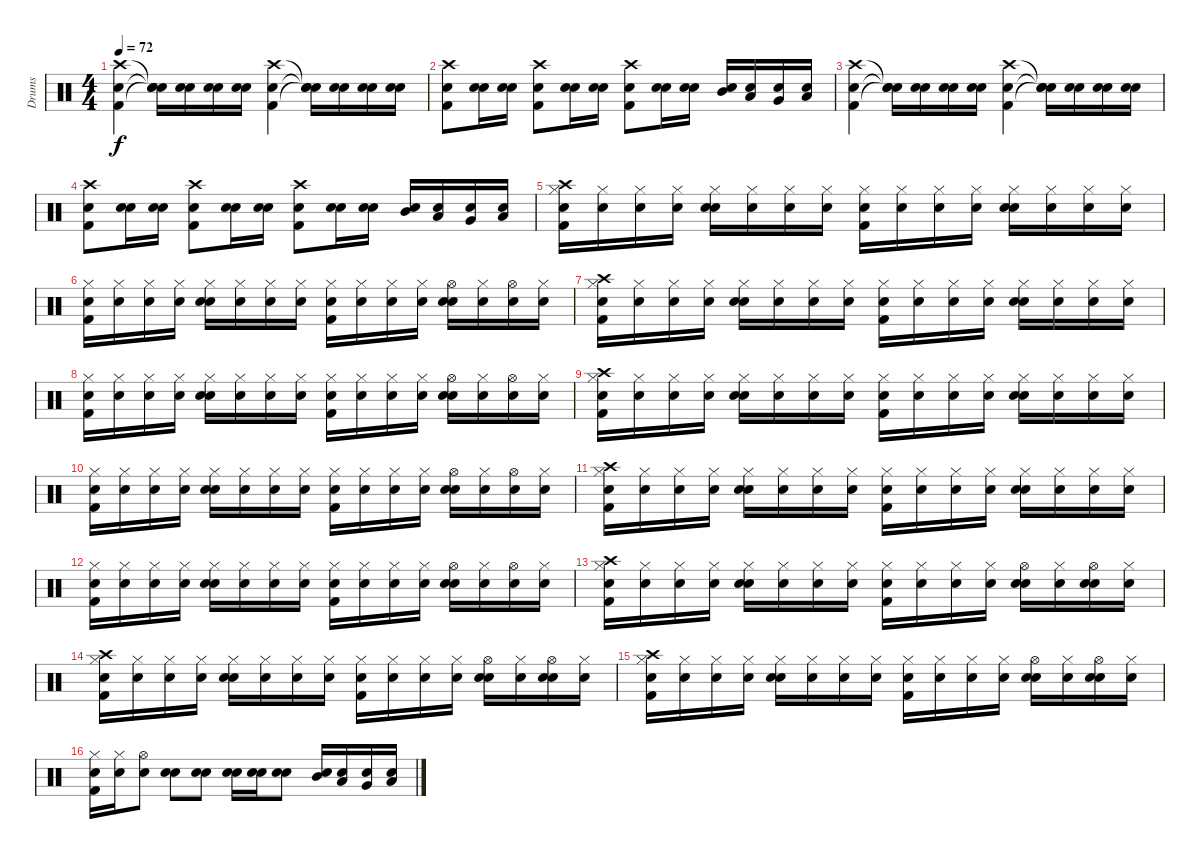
\track ("Drums" "Drums") {instrument percussion}
\staff {score}
\articulation defaults
\ts (4 4)
\tempo 72
\clef neutral
\ks c
("Snare (hit)" "Kick (hit) 2" "Crash high (hit)").4{dy f} ("Snare (hit)"{t} "Snare (hit)"{t} "Snare (hit)"{t}).16 ("Snare (hit)" "Snare (hit) 2").16 ("Snare (hit)" "Snare (hit) 2").16 ("Snare (hit)" "Snare (hit) 2").16 ("Snare (hit)" "Kick (hit) 2" "Crash high (hit)").4 ("Snare (hit)"{t} "Snare (hit)"{t} "Snare (hit)"{t}).16 ("Snare (hit)" "Snare (hit) 2").16 ("Snare (hit)" "Snare (hit) 2").16 ("Snare (hit)" "Snare (hit) 2").16 |
("Snare (hit)" "Kick (hit) 2" "Crash high (hit)").8 ("Snare (hit)" "Snare (hit) 2").16 ("Snare (hit)" "Snare (hit) 2").16 ("Snare (hit)" "Kick (hit) 2" "Crash high (hit)").8 ("Snare (hit)" "Snare (hit) 2").16 ("Snare (hit)" "Snare (hit) 2").16 ("Snare (hit)" "Kick (hit) 2" "Crash high (hit)").8 ("Snare (hit)" "Snare (hit) 2").16 ("Snare (hit)" "Snare (hit) 2").16 ("Snare (hit)" "Mid Tom (hit)").16 ("Snare (hit)" "Low Tom (hit)").16 ("Snare (hit)" "Very Low Tom (hit)").16 ("Snare (hit)" "Low Floor Tom (hit)").16 |
("Snare (hit)" "Kick (hit) 2" "Crash high (hit)").4 ("Snare (hit)"{t} "Snare (hit)"{t} "Snare (hit)"{t}).16 ("Snare (hit)" "Snare (hit) 2").16 ("Snare (hit)" "Snare (hit) 2").16 ("Snare (hit)" "Snare (hit) 2").16 ("Snare (hit)" "Kick (hit) 2" "Crash high (hit)").4 ("Snare (hit)"{t} "Snare (hit)"{t} "Snare (hit)"{t}).16 ("Snare (hit)" "Snare (hit) 2").16 ("Snare (hit)" "Snare (hit) 2").16 ("Snare (hit)" "Snare (hit) 2").16 |
("Snare (hit)" "Kick (hit) 2" "Crash high (hit)").8 ("Snare (hit)" "Snare (hit) 2").16 ("Snare (hit)" "Snare (hit) 2").16 ("Snare (hit)" "Kick (hit) 2" "Crash high (hit)").8 ("Snare (hit)" "Snare (hit) 2").16 ("Snare (hit)" "Snare (hit) 2").16 ("Snare (hit)" "Kick (hit) 2" "Crash high (hit)").8 ("Snare (hit)" "Snare (hit) 2").16 ("Snare (hit)" "Snare (hit) 2").16 ("Snare (hit)" "Mid Tom (hit)").16 ("Snare (hit)" "Low Tom (hit)").16 ("Snare (hit)" "Very Low Tom (hit)").16 ("Snare (hit)" "Low Floor Tom (hit)").16 |
("Snare (hit)" "Kick (hit) 2" "Hi-Hat (closed)" "Crash high (hit)").16 ("Snare (hit)" "Hi-Hat (closed)").16 ("Snare (hit)" "Hi-Hat (closed)").16 ("Snare (hit)" "Hi-Hat (closed)").16 ("Snare (hit)" "Snare (hit) 2" "Hi-Hat (closed)").16 ("Snare (hit)" "Hi-Hat (closed)").16 ("Snare (hit)" "Hi-Hat (closed)").16 ("Snare (hit)" "Hi-Hat (closed)").16 ("Snare (hit)" "Kick (hit) 2" "Hi-Hat (closed)").16 ("Snare (hit)" "Hi-Hat (closed)").16 ("Snare (hit)" "Hi-Hat (closed)").16 ("Snare (hit)" "Hi-Hat (closed)").16 ("Snare (hit)" "Snare (hit) 2" "Hi-Hat (closed)").16 ("Snare (hit)" "Hi-Hat (closed)").16 ("Snare (hit)" "Hi-Hat (closed)").16 ("Snare (hit)" "Hi-Hat (closed)").16 |
("Snare (hit)" "Kick (hit) 2" "Hi-Hat (closed)").16 ("Snare (hit)" "Hi-Hat (closed)").16 ("Snare (hit)" "Hi-Hat (closed)").16 ("Snare (hit)" "Hi-Hat (closed)").16 ("Snare (hit)" "Snare (hit) 2" "Hi-Hat (closed)").16 ("Snare (hit)" "Hi-Hat (closed)").16 ("Snare (hit)" "Hi-Hat (closed)").16 ("Snare (hit)" "Hi-Hat (closed)").16 ("Snare (hit)" "Kick (hit) 2" "Hi-Hat (closed)").16 ("Snare (hit)" "Hi-Hat (closed)").16 ("Snare (hit)" "Hi-Hat (closed)").16 ("Snare (hit)" "Hi-Hat (closed)").16 ("Snare (hit)" "Snare (hit) 2" "Hi-Hat (open)").16 ("Snare (hit)" "Hi-Hat (closed)").16 ("Snare (hit)" "Hi-Hat (open)").16 ("Snare (hit)" "Hi-Hat (closed)").16 |
("Snare (hit)" "Kick (hit) 2" "Hi-Hat (closed)" "Crash high (hit)").16 ("Snare (hit)" "Hi-Hat (closed)").16 ("Snare (hit)" "Hi-Hat (closed)").16 ("Snare (hit)" "Hi-Hat (closed)").16 ("Snare (hit)" "Snare (hit) 2" "Hi-Hat (closed)").16 ("Snare (hit)" "Hi-Hat (closed)").16 ("Snare (hit)" "Hi-Hat (closed)").16 ("Snare (hit)" "Hi-Hat (closed)").16 ("Snare (hit)" "Kick (hit) 2" "Hi-Hat (closed)").16 ("Snare (hit)" "Hi-Hat (closed)").16 ("Snare (hit)" "Hi-Hat (closed)").16 ("Snare (hit)" "Hi-Hat (closed)").16 ("Snare (hit)" "Snare (hit) 2" "Hi-Hat (closed)").16 ("Snare (hit)" "Hi-Hat (closed)").16 ("Snare (hit)" "Hi-Hat (closed)").16 ("Snare (hit)" "Hi-Hat (closed)").16 |
("Snare (hit)" "Kick (hit) 2" "Hi-Hat (closed)").16 ("Snare (hit)" "Hi-Hat (closed)").16 ("Snare (hit)" "Hi-Hat (closed)").16 ("Snare (hit)" "Hi-Hat (closed)").16 ("Snare (hit)" "Snare (hit) 2" "Hi-Hat (closed)").16 ("Snare (hit)" "Hi-Hat (closed)").16 ("Snare (hit)" "Hi-Hat (closed)").16 ("Snare (hit)" "Hi-Hat (closed)").16 ("Snare (hit)" "Kick (hit) 2" "Hi-Hat (closed)").16 ("Snare (hit)" "Hi-Hat (closed)").16 ("Snare (hit)" "Hi-Hat (closed)").16 ("Snare (hit)" "Hi-Hat (closed)").16 ("Snare (hit)" "Snare (hit) 2" "Hi-Hat (open)").16 ("Snare (hit)" "Hi-Hat (closed)").16 ("Snare (hit)" "Hi-Hat (open)").16 ("Snare (hit)" "Hi-Hat (closed)").16 |
("Snare (hit)" "Kick (hit) 2" "Hi-Hat (closed)" "Crash high (hit)").16 ("Snare (hit)" "Hi-Hat (closed)").16 ("Snare (hit)" "Hi-Hat (closed)").16 ("Snare (hit)" "Hi-Hat (closed)").16 ("Snare (hit)" "Snare (hit) 2" "Hi-Hat (closed)").16 ("Snare (hit)" "Hi-Hat (closed)").16 ("Snare (hit)" "Hi-Hat (closed)").16 ("Snare (hit)" "Hi-Hat (closed)").16 ("Snare (hit)" "Kick (hit) 2" "Hi-Hat (closed)").16 ("Snare (hit)" "Hi-Hat (closed)").16 ("Snare (hit)" "Hi-Hat (closed)").16 ("Snare (hit)" "Hi-Hat (closed)").16 ("Snare (hit)" "Snare (hit) 2" "Hi-Hat (closed)").16 ("Snare (hit)" "Hi-Hat (closed)").16 ("Snare (hit)" "Hi-Hat (closed)").16 ("Snare (hit)" "Hi-Hat (closed)").16 |
("Snare (hit)" "Kick (hit) 2" "Hi-Hat (closed)").16 ("Snare (hit)" "Hi-Hat (closed)").16 ("Snare (hit)" "Hi-Hat (closed)").16 ("Snare (hit)" "Hi-Hat (closed)").16 ("Snare (hit)" "Snare (hit) 2" "Hi-Hat (closed)").16 ("Snare (hit)" "Hi-Hat (closed)").16 ("Snare (hit)" "Hi-Hat (closed)").16 ("Snare (hit)" "Hi-Hat (closed)").16 ("Snare (hit)" "Kick (hit) 2" "Hi-Hat (closed)").16 ("Snare (hit)" "Hi-Hat (closed)").16 ("Snare (hit)" "Hi-Hat (closed)").16 ("Snare (hit)" "Hi-Hat (closed)").16 ("Snare (hit)" "Snare (hit) 2" "Hi-Hat (open)").16 ("Snare (hit)" "Hi-Hat (closed)").16 ("Snare (hit)" "Hi-Hat (open)").16 ("Snare (hit)" "Hi-Hat (closed)").16 |
("Snare (hit)" "Kick (hit) 2" "Hi-Hat (closed)" "Crash high (hit)").16 ("Snare (hit)" "Hi-Hat (closed)").16 ("Snare (hit)" "Hi-Hat (closed)").16 ("Snare (hit)" "Hi-Hat (closed)").16 ("Snare (hit)" "Snare (hit) 2" "Hi-Hat (closed)").16 ("Snare (hit)" "Hi-Hat (closed)").16 ("Snare (hit)" "Hi-Hat (closed)").16 ("Snare (hit)" "Hi-Hat (closed)").16 ("Snare (hit)" "Kick (hit) 2" "Hi-Hat (closed)").16 ("Snare (hit)" "Hi-Hat (closed)").16 ("Snare (hit)" "Hi-Hat (closed)").16 ("Snare (hit)" "Hi-Hat (closed)").16 ("Snare (hit)" "Snare (hit) 2" "Hi-Hat (closed)").16 ("Snare (hit)" "Hi-Hat (closed)").16 ("Snare (hit)" "Hi-Hat (closed)").16 ("Snare (hit)" "Hi-Hat (closed)").16 |
("Snare (hit)" "Kick (hit) 2" "Hi-Hat (closed)").16 ("Snare (hit)" "Hi-Hat (closed)").16 ("Snare (hit)" "Hi-Hat (closed)").16 ("Snare (hit)" "Hi-Hat (closed)").16 ("Snare (hit)" "Snare (hit) 2" "Hi-Hat (closed)").16 ("Snare (hit)" "Hi-Hat (closed)").16 ("Snare (hit)" "Hi-Hat (closed)").16 ("Snare (hit)" "Hi-Hat (closed)").16 ("Snare (hit)" "Kick (hit) 2" "Hi-Hat (closed)").16 ("Snare (hit)" "Hi-Hat (closed)").16 ("Snare (hit)" "Hi-Hat (closed)").16 ("Snare (hit)" "Hi-Hat (closed)").16 ("Snare (hit)" "Snare (hit) 2" "Hi-Hat (open)").16 ("Snare (hit)" "Hi-Hat (closed)").16 ("Snare (hit)" "Hi-Hat (open)").16 ("Snare (hit)" "Hi-Hat (closed)").16 |
("Snare (hit)" "Kick (hit) 2" "Hi-Hat (closed)" "Crash high (hit)").16 ("Snare (hit)" "Hi-Hat (closed)").16 ("Snare (hit)" "Hi-Hat (closed)").16 ("Snare (hit)" "Hi-Hat (closed)").16 ("Snare (hit)" "Snare (hit) 2" "Hi-Hat (closed)").16 ("Snare (hit)" "Hi-Hat (closed)").16 ("Snare (hit)" "Hi-Hat (closed)").16 ("Snare (hit)" "Hi-Hat (closed)").16 ("Snare (hit)" "Kick (hit) 2" "Hi-Hat (closed)").16 ("Snare (hit)" "Hi-Hat (closed)").16 ("Snare (hit)" "Hi-Hat (closed)").16 ("Snare (hit)" "Hi-Hat (closed)").16 ("Snare (hit)" "Snare (hit) 2" "Hi-Hat (open)").16 ("Snare (hit)" "Hi-Hat (closed)").16 ("Snare (hit)" "Snare (hit) 2" "Hi-Hat (open)").16 ("Snare (hit)" "Hi-Hat (closed)").16 |
("Snare (hit)" "Kick (hit) 2" "Hi-Hat (closed)" "Crash high (hit)").16 ("Snare (hit)" "Hi-Hat (closed)").16 ("Snare (hit)" "Hi-Hat (closed)").16 ("Snare (hit)" "Hi-Hat (closed)").16 ("Snare (hit)" "Snare (hit) 2" "Hi-Hat (closed)").16 ("Snare (hit)" "Hi-Hat (closed)").16 ("Snare (hit)" "Hi-Hat (closed)").16 ("Snare (hit)" "Hi-Hat (closed)").16 ("Snare (hit)" "Kick (hit) 2" "Hi-Hat (closed)").16 ("Snare (hit)" "Hi-Hat (closed)").16 ("Snare (hit)" "Hi-Hat (closed)").16 ("Snare (hit)" "Hi-Hat (closed)").16 ("Snare (hit)" "Snare (hit) 2" "Hi-Hat (open)").16 ("Snare (hit)" "Hi-Hat (closed)").16 ("Snare (hit)" "Snare (hit) 2" "Hi-Hat (open)").16 ("Snare (hit)" "Hi-Hat (closed)").16 |
("Snare (hit)" "Kick (hit) 2" "Hi-Hat (closed)" "Crash high (hit)").16 ("Snare (hit)" "Hi-Hat (closed)").16 ("Snare (hit)" "Hi-Hat (closed)").16 ("Snare (hit)" "Hi-Hat (closed)").16 ("Snare (hit)" "Snare (hit) 2" "Hi-Hat (closed)").16 ("Snare (hit)" "Hi-Hat (closed)").16 ("Snare (hit)" "Hi-Hat (closed)").16 ("Snare (hit)" "Hi-Hat (closed)").16 ("Snare (hit)" "Kick (hit) 2" "Hi-Hat (closed)").16 ("Snare (hit)" "Hi-Hat (closed)").16 ("Snare (hit)" "Hi-Hat (closed)").16 ("Snare (hit)" "Hi-Hat (closed)").16 ("Snare (hit)" "Snare (hit) 2" "Hi-Hat (open)").16 ("Snare (hit)" "Hi-Hat (closed)").16 ("Snare (hit)" "Snare (hit) 2" "Hi-Hat (open)").16 ("Snare (hit)" "Hi-Hat (closed)").16 |
("Snare (hit)" "Kick (hit) 2" "Hi-Hat (closed)").16 ("Snare (hit)" "Hi-Hat (closed)").16 ("Snare (hit)" "Hi-Hat (open)").8 ("Snare (hit)" "Snare (hit) 2").8 ("Snare (hit)" "Snare (hit) 2").8 ("Snare (hit)" "Snare (hit) 2").16 ("Snare (hit)" "Snare (hit) 2").16 ("Snare (hit)" "Snare (hit) 2").8 ("Snare (hit)" "Mid Tom (hit)").16 ("Snare (hit)" "Low Tom (hit)").16 ("Snare (hit)" "Very Low Tom (hit)").16 ("Snare (hit)" "Low Floor Tom (hit)").16
